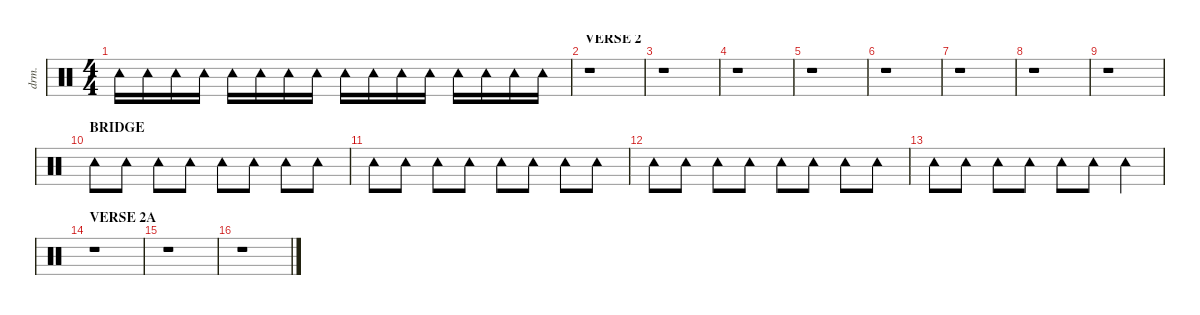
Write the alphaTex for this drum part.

\defaultSystemsLayout 4
\hideDynamics
\bracketExtendMode nobrackets
\otherSystemsTrackNameOrientation horizontal
\track ("Percussion" "drm.") {defaultSystemsLayout 8 solo instrument percussion}
\staff {score}
\articulation defaults
\ts (4 4)
\tempo (128 hide)
\clef neutral
\ks c "Tambourine (hit)".16{dy f beam Down} "Tambourine (hit)".16{beam Down} "Tambourine (hit)".16{beam Down} "Tambourine (hit)".16{beam Down} "Tambourine (hit)".16{dy fff beam Down} "Tambourine (hit)".16{dy f beam Down} "Tambourine (hit)".16{beam Down} "Tambourine (hit)".16{beam Down} "Tambourine (hit)".16{beam Down} "Tambourine (hit)".16{beam Down} "Tambourine (hit)".16{beam Down} "Tambourine (hit)".16{beam Down} "Tambourine (hit)".16{dy fff beam Down} "Tambourine (hit)".16{dy f beam Down} "Tambourine (hit)".16{beam Down} "Tambourine (hit)".16{beam Down}
|
\section ("" "VERSE 2")
\tempo (127 hide)
r.1{beam Down} |
r.1{beam Down} |
r.1{beam Down} |
r.1{beam Down} |
r.1{beam Down} |
r.1{beam Down} |
r.1{beam Down} |
r.1{beam Down} |
\section ("" "BRIDGE")
\tempo (128 hide)
"Tambourine (hit)".8{beam Down} "Tambourine (hit)".8{beam Down} "Tambourine (hit)".8{dy fff beam Down} "Tambourine (hit)".8{dy f beam Down} "Tambourine (hit)".8{beam Down} "Tambourine (hit)".8{beam Down} "Tambourine (hit)".8{dy fff beam Down} "Tambourine (hit)".8{dy f beam Down} |
"Tambourine (hit)".8{beam Down} "Tambourine (hit)".8{beam Down} "Tambourine (hit)".8{dy fff beam Down} "Tambourine (hit)".8{dy f beam Down} "Tambourine (hit)".8{beam Down} "Tambourine (hit)".8{beam Down} "Tambourine (hit)".8{dy fff beam Down} "Tambourine (hit)".8{dy f beam Down} |
"Tambourine (hit)".8{beam Down} "Tambourine (hit)".8{beam Down} "Tambourine (hit)".8{dy fff beam Down} "Tambourine (hit)".8{dy f beam Down} "Tambourine (hit)".8{beam Down} "Tambourine (hit)".8{beam Down} "Tambourine (hit)".8{dy fff beam Down} "Tambourine (hit)".8{dy f beam Down} |
"Tambourine (hit)".8{beam Down} "Tambourine (hit)".8{beam Down} "Tambourine (hit)".8{dy fff beam Down} "Tambourine (hit)".8{dy f beam Down} "Tambourine (hit)".8{beam Down} "Tambourine (hit)".8{beam Down} "Tambourine (hit)".4{dy fff beam Down} |
\section ("" "VERSE 2A")
r.1{beam Down} |
r.1{beam Down} |
r.1{beam Down}
